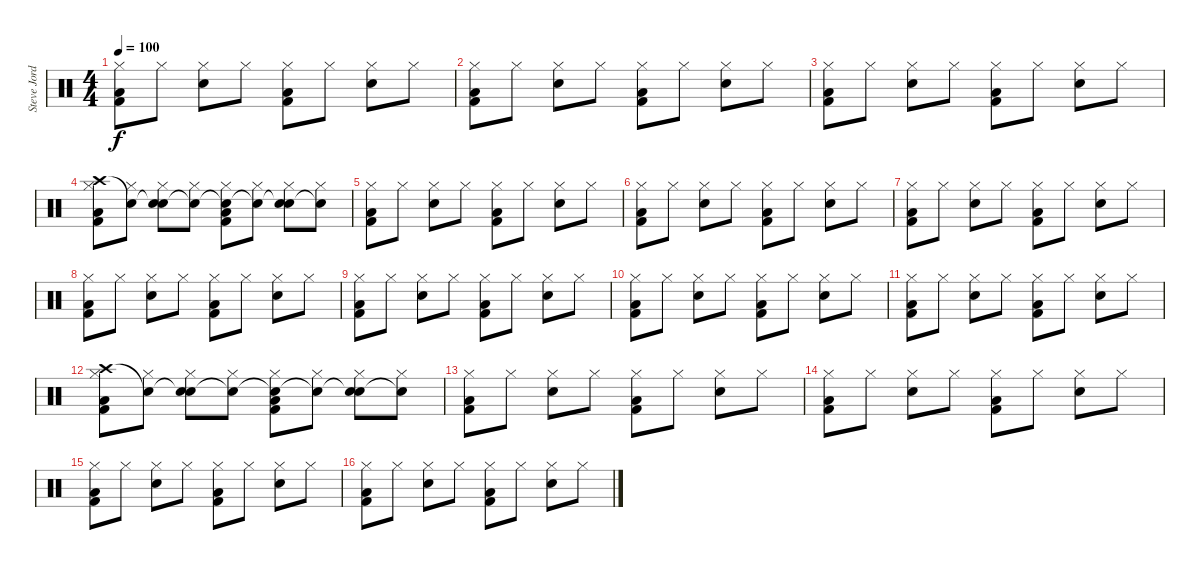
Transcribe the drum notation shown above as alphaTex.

\track ("Steve Jordan" "Steve Jord") {instrument percussion}
\staff {score}
\articulation defaults
\ts (4 4)
\tempo 100
\clef neutral
\ks c
("Hi-Hat (closed)" "Low Floor Tom (hit)" "Kick (hit) 2").8{dy f} "Hi-Hat (closed)".8 ("Hi-Hat (closed)" "Snare (hit) 2").8 "Hi-Hat (closed)".8 ("Hi-Hat (closed)" "Low Floor Tom (hit)" "Kick (hit) 2").8 "Hi-Hat (closed)".8 ("Hi-Hat (closed)" "Snare (hit) 2").8 "Hi-Hat (closed)".8 |
("Hi-Hat (closed)" "Low Floor Tom (hit)" "Kick (hit) 2").8 "Hi-Hat (closed)".8 ("Hi-Hat (closed)" "Snare (hit) 2").8 "Hi-Hat (closed)".8 ("Hi-Hat (closed)" "Low Floor Tom (hit)" "Kick (hit) 2").8 "Hi-Hat (closed)".8 ("Hi-Hat (closed)" "Snare (hit) 2").8 "Hi-Hat (closed)".8 |
("Hi-Hat (closed)" "Low Floor Tom (hit)" "Kick (hit) 2").8 "Hi-Hat (closed)".8 ("Hi-Hat (closed)" "Snare (hit) 2").8 "Hi-Hat (closed)".8 ("Hi-Hat (closed)" "Low Floor Tom (hit)" "Kick (hit) 2").8 "Hi-Hat (closed)".8 ("Hi-Hat (closed)" "Snare (hit) 2").8 "Hi-Hat (closed)".8 |
("Crash high (hit)" "Hi-Hat (closed)" "Low Floor Tom (hit)" "Kick (hit) 2").8 ("Snare (hit)"{t} "Hi-Hat (closed)").8 ("Snare (hit)"{t} "Hi-Hat (closed)" "Snare (hit) 2").8 ("Snare (hit)"{t} "Hi-Hat (closed)").8 ("Snare (hit)"{t} "Hi-Hat (closed)" "Low Floor Tom (hit)" "Kick (hit) 2").8 ("Snare (hit)"{t} "Hi-Hat (closed)").8 ("Snare (hit)"{t} "Hi-Hat (closed)" "Snare (hit) 2").8 ("Snare (hit)"{t} "Hi-Hat (closed)").8 |
("Hi-Hat (closed)" "Low Floor Tom (hit)" "Kick (hit) 2").8 "Hi-Hat (closed)".8 ("Hi-Hat (closed)" "Snare (hit) 2").8 "Hi-Hat (closed)".8 ("Hi-Hat (closed)" "Low Floor Tom (hit)" "Kick (hit) 2").8 "Hi-Hat (closed)".8 ("Hi-Hat (closed)" "Snare (hit) 2").8 "Hi-Hat (closed)".8 |
("Hi-Hat (closed)" "Low Floor Tom (hit)" "Kick (hit) 2").8 "Hi-Hat (closed)".8 ("Hi-Hat (closed)" "Snare (hit) 2").8 "Hi-Hat (closed)".8 ("Hi-Hat (closed)" "Low Floor Tom (hit)" "Kick (hit) 2").8 "Hi-Hat (closed)".8 ("Hi-Hat (closed)" "Snare (hit) 2").8 "Hi-Hat (closed)".8 |
("Hi-Hat (closed)" "Low Floor Tom (hit)" "Kick (hit) 2").8 "Hi-Hat (closed)".8 ("Hi-Hat (closed)" "Snare (hit) 2").8 "Hi-Hat (closed)".8 ("Hi-Hat (closed)" "Low Floor Tom (hit)" "Kick (hit) 2").8 "Hi-Hat (closed)".8 ("Hi-Hat (closed)" "Snare (hit) 2").8 "Hi-Hat (closed)".8 |
("Hi-Hat (closed)" "Low Floor Tom (hit)" "Kick (hit) 2").8 "Hi-Hat (closed)".8 ("Hi-Hat (closed)" "Snare (hit) 2").8 "Hi-Hat (closed)".8 ("Hi-Hat (closed)" "Low Floor Tom (hit)" "Kick (hit) 2").8 "Hi-Hat (closed)".8 ("Hi-Hat (closed)" "Snare (hit) 2").8 "Hi-Hat (closed)".8 |
("Hi-Hat (closed)" "Low Floor Tom (hit)" "Kick (hit) 2").8 "Hi-Hat (closed)".8 ("Hi-Hat (closed)" "Snare (hit) 2").8 "Hi-Hat (closed)".8 ("Hi-Hat (closed)" "Low Floor Tom (hit)" "Kick (hit) 2").8 "Hi-Hat (closed)".8 ("Hi-Hat (closed)" "Snare (hit) 2").8 "Hi-Hat (closed)".8 |
("Hi-Hat (closed)" "Low Floor Tom (hit)" "Kick (hit) 2").8 "Hi-Hat (closed)".8 ("Hi-Hat (closed)" "Snare (hit) 2").8 "Hi-Hat (closed)".8 ("Hi-Hat (closed)" "Low Floor Tom (hit)" "Kick (hit) 2").8 "Hi-Hat (closed)".8 ("Hi-Hat (closed)" "Snare (hit) 2").8 "Hi-Hat (closed)".8 |
("Hi-Hat (closed)" "Low Floor Tom (hit)" "Kick (hit) 2").8 "Hi-Hat (closed)".8 ("Hi-Hat (closed)" "Snare (hit) 2").8 "Hi-Hat (closed)".8 ("Hi-Hat (closed)" "Low Floor Tom (hit)" "Kick (hit) 2").8 "Hi-Hat (closed)".8 ("Hi-Hat (closed)" "Snare (hit) 2").8 "Hi-Hat (closed)".8 |
("Crash high (hit)" "Hi-Hat (closed)" "Low Floor Tom (hit)" "Kick (hit) 2").8 ("Snare (hit)"{t} "Hi-Hat (closed)").8 ("Snare (hit)"{t} "Hi-Hat (closed)" "Snare (hit) 2").8 ("Snare (hit)"{t} "Hi-Hat (closed)").8 ("Snare (hit)"{t} "Hi-Hat (closed)" "Low Floor Tom (hit)" "Kick (hit) 2").8 ("Snare (hit)"{t} "Hi-Hat (closed)").8 ("Snare (hit)"{t} "Hi-Hat (closed)" "Snare (hit) 2").8 ("Snare (hit)"{t} "Hi-Hat (closed)").8 |
("Hi-Hat (closed)" "Low Floor Tom (hit)" "Kick (hit) 2").8 "Hi-Hat (closed)".8 ("Hi-Hat (closed)" "Snare (hit) 2").8 "Hi-Hat (closed)".8 ("Hi-Hat (closed)" "Low Floor Tom (hit)" "Kick (hit) 2").8 "Hi-Hat (closed)".8 ("Hi-Hat (closed)" "Snare (hit) 2").8 "Hi-Hat (closed)".8 |
("Hi-Hat (closed)" "Low Floor Tom (hit)" "Kick (hit) 2").8 "Hi-Hat (closed)".8 ("Hi-Hat (closed)" "Snare (hit) 2").8 "Hi-Hat (closed)".8 ("Hi-Hat (closed)" "Low Floor Tom (hit)" "Kick (hit) 2").8 "Hi-Hat (closed)".8 ("Hi-Hat (closed)" "Snare (hit) 2").8 "Hi-Hat (closed)".8 |
("Hi-Hat (closed)" "Low Floor Tom (hit)" "Kick (hit) 2").8 "Hi-Hat (closed)".8 ("Hi-Hat (closed)" "Snare (hit) 2").8 "Hi-Hat (closed)".8 ("Hi-Hat (closed)" "Low Floor Tom (hit)" "Kick (hit) 2").8 "Hi-Hat (closed)".8 ("Hi-Hat (closed)" "Snare (hit) 2").8 "Hi-Hat (closed)".8 |
("Hi-Hat (closed)" "Low Floor Tom (hit)" "Kick (hit) 2").8 "Hi-Hat (closed)".8 ("Hi-Hat (closed)" "Snare (hit) 2").8 "Hi-Hat (closed)".8 ("Hi-Hat (closed)" "Low Floor Tom (hit)" "Kick (hit) 2").8 "Hi-Hat (closed)".8 ("Hi-Hat (closed)" "Snare (hit) 2").8 "Hi-Hat (closed)".8
